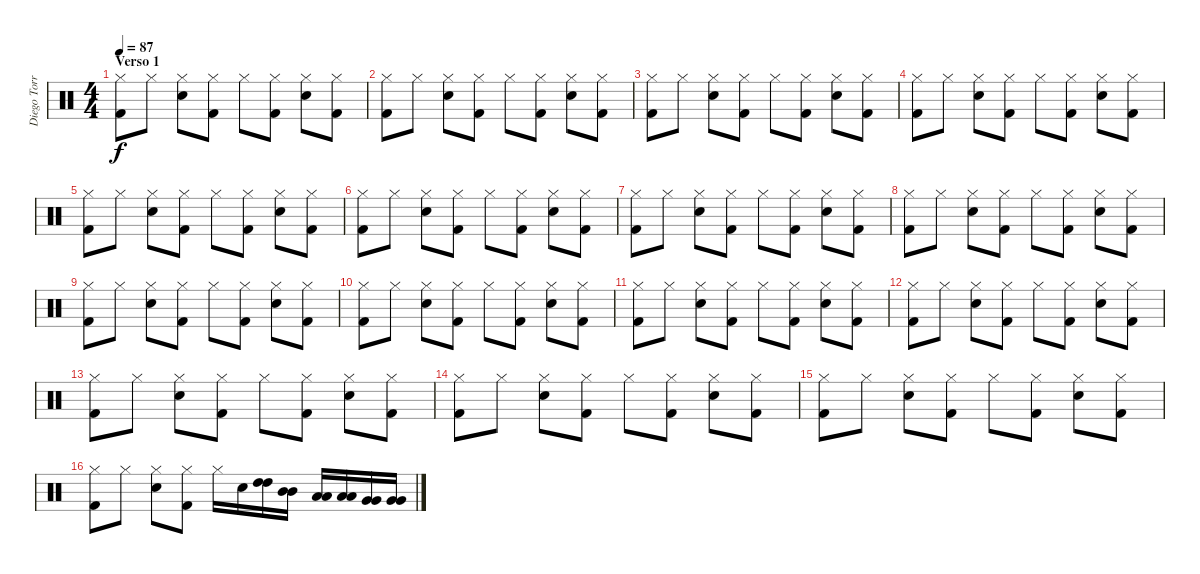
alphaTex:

\track ("Diego Torres [Bateria]" "Diego Torr") {instrument percussion}
\staff {score}
\articulation defaults
\ts (4 4)
\section ("" "Verso 1")
\tempo 87
\clef neutral
\ks c
("Hi-Hat (closed)" "Kick (hit) 2").8{dy f} "Hi-Hat (closed)".8 ("Hi-Hat (closed)" "Electric Snare (hit)").8 ("Hi-Hat (closed)" "Kick (hit) 2").8 "Hi-Hat (closed)".8 ("Hi-Hat (closed)" "Kick (hit) 2").8 ("Hi-Hat (closed)" "Electric Snare (hit)").8 ("Hi-Hat (closed)" "Kick (hit) 2").8 |
("Hi-Hat (closed)" "Kick (hit) 2").8 "Hi-Hat (closed)".8 ("Hi-Hat (closed)" "Electric Snare (hit)").8 ("Hi-Hat (closed)" "Kick (hit) 2").8 "Hi-Hat (closed)".8 ("Hi-Hat (closed)" "Kick (hit) 2").8 ("Hi-Hat (closed)" "Electric Snare (hit)").8 ("Hi-Hat (closed)" "Kick (hit) 2").8 |
("Hi-Hat (closed)" "Kick (hit) 2").8 "Hi-Hat (closed)".8 ("Hi-Hat (closed)" "Electric Snare (hit)").8 ("Hi-Hat (closed)" "Kick (hit) 2").8 "Hi-Hat (closed)".8 ("Hi-Hat (closed)" "Kick (hit) 2").8 ("Hi-Hat (closed)" "Electric Snare (hit)").8 ("Hi-Hat (closed)" "Kick (hit) 2").8 |
("Hi-Hat (closed)" "Kick (hit) 2").8 "Hi-Hat (closed)".8 ("Hi-Hat (closed)" "Electric Snare (hit)").8 ("Hi-Hat (closed)" "Kick (hit) 2").8 "Hi-Hat (closed)".8 ("Hi-Hat (closed)" "Kick (hit) 2").8 ("Hi-Hat (closed)" "Electric Snare (hit)").8 ("Hi-Hat (closed)" "Kick (hit) 2").8 |
("Hi-Hat (closed)" "Kick (hit) 2").8 "Hi-Hat (closed)".8 ("Hi-Hat (closed)" "Electric Snare (hit)").8 ("Hi-Hat (closed)" "Kick (hit) 2").8 "Hi-Hat (closed)".8 ("Hi-Hat (closed)" "Kick (hit) 2").8 ("Hi-Hat (closed)" "Electric Snare (hit)").8 ("Hi-Hat (closed)" "Kick (hit) 2").8 |
("Hi-Hat (closed)" "Kick (hit) 2").8 "Hi-Hat (closed)".8 ("Hi-Hat (closed)" "Electric Snare (hit)").8 ("Hi-Hat (closed)" "Kick (hit) 2").8 "Hi-Hat (closed)".8 ("Hi-Hat (closed)" "Kick (hit) 2").8 ("Hi-Hat (closed)" "Electric Snare (hit)").8 ("Hi-Hat (closed)" "Kick (hit) 2").8 |
("Hi-Hat (closed)" "Kick (hit) 2").8 "Hi-Hat (closed)".8 ("Hi-Hat (closed)" "Electric Snare (hit)").8 ("Hi-Hat (closed)" "Kick (hit) 2").8 "Hi-Hat (closed)".8 ("Hi-Hat (closed)" "Kick (hit) 2").8 ("Hi-Hat (closed)" "Electric Snare (hit)").8 ("Hi-Hat (closed)" "Kick (hit) 2").8 |
("Hi-Hat (closed)" "Kick (hit) 2").8 "Hi-Hat (closed)".8 ("Hi-Hat (closed)" "Electric Snare (hit)").8 ("Hi-Hat (closed)" "Kick (hit) 2").8 "Hi-Hat (closed)".8 ("Hi-Hat (closed)" "Kick (hit) 2").8 ("Hi-Hat (closed)" "Electric Snare (hit)").8 ("Hi-Hat (closed)" "Kick (hit) 2").8 |
("Hi-Hat (closed)" "Kick (hit) 2").8 "Hi-Hat (closed)".8 ("Hi-Hat (closed)" "Electric Snare (hit)").8 ("Hi-Hat (closed)" "Kick (hit) 2").8 "Hi-Hat (closed)".8 ("Hi-Hat (closed)" "Kick (hit) 2").8 ("Hi-Hat (closed)" "Electric Snare (hit)").8 ("Hi-Hat (closed)" "Kick (hit) 2").8 |
("Hi-Hat (closed)" "Kick (hit) 2").8 "Hi-Hat (closed)".8 ("Hi-Hat (closed)" "Electric Snare (hit)").8 ("Hi-Hat (closed)" "Kick (hit) 2").8 "Hi-Hat (closed)".8 ("Hi-Hat (closed)" "Kick (hit) 2").8 ("Hi-Hat (closed)" "Electric Snare (hit)").8 ("Hi-Hat (closed)" "Kick (hit) 2").8 |
("Hi-Hat (closed)" "Kick (hit) 2").8 "Hi-Hat (closed)".8 ("Hi-Hat (closed)" "Electric Snare (hit)").8 ("Hi-Hat (closed)" "Kick (hit) 2").8 "Hi-Hat (closed)".8 ("Hi-Hat (closed)" "Kick (hit) 2").8 ("Hi-Hat (closed)" "Electric Snare (hit)").8 ("Hi-Hat (closed)" "Kick (hit) 2").8 |
("Hi-Hat (closed)" "Kick (hit) 2").8 "Hi-Hat (closed)".8 ("Hi-Hat (closed)" "Electric Snare (hit)").8 ("Hi-Hat (closed)" "Kick (hit) 2").8 "Hi-Hat (closed)".8 ("Hi-Hat (closed)" "Kick (hit) 2").8 ("Hi-Hat (closed)" "Electric Snare (hit)").8 ("Hi-Hat (closed)" "Kick (hit) 2").8 |
("Hi-Hat (closed)" "Kick (hit) 2").8 "Hi-Hat (closed)".8 ("Hi-Hat (closed)" "Electric Snare (hit)").8 ("Hi-Hat (closed)" "Kick (hit) 2").8 "Hi-Hat (closed)".8 ("Hi-Hat (closed)" "Kick (hit) 2").8 ("Hi-Hat (closed)" "Electric Snare (hit)").8 ("Hi-Hat (closed)" "Kick (hit) 2").8 |
("Hi-Hat (closed)" "Kick (hit) 2").8 "Hi-Hat (closed)".8 ("Hi-Hat (closed)" "Electric Snare (hit)").8 ("Hi-Hat (closed)" "Kick (hit) 2").8 "Hi-Hat (closed)".8 ("Hi-Hat (closed)" "Kick (hit) 2").8 ("Hi-Hat (closed)" "Electric Snare (hit)").8 ("Hi-Hat (closed)" "Kick (hit) 2").8 |
("Hi-Hat (closed)" "Kick (hit) 2").8 "Hi-Hat (closed)".8 ("Hi-Hat (closed)" "Electric Snare (hit)").8 ("Hi-Hat (closed)" "Kick (hit) 2").8 "Hi-Hat (closed)".8 ("Hi-Hat (closed)" "Kick (hit) 2").8 ("Hi-Hat (closed)" "Electric Snare (hit)").8 ("Hi-Hat (closed)" "Kick (hit) 2").8 |
("Hi-Hat (closed)" "Kick (hit) 2").8 "Hi-Hat (closed)".8 ("Hi-Hat (closed)" "Electric Snare (hit)").8 ("Hi-Hat (closed)" "Kick (hit) 2").8 "Hi-Hat (closed)".16 "Electric Snare (hit)".16 ("High Tom (hit)" "High Tom (hit)").16 ("Mid Tom (hit)" "Mid Tom (hit)").16 ("Low Tom (hit)" "Low Tom (hit)").16 ("Low Tom (hit)" "Low Tom (hit)").16 ("Very Low Tom (hit)" "Very Low Tom (hit)").16 ("Very Low Tom (hit)" "Very Low Tom (hit)").16
